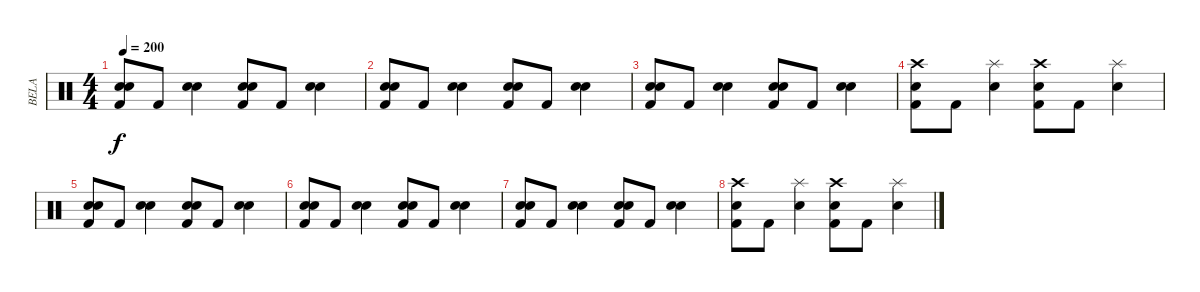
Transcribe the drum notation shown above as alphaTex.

\track ("BELA" "BELA") {instrument percussion}
\staff {score}
\articulation defaults
\ts (4 4)
\tempo 200
\clef neutral
\ks c
("Electric Snare (hit)" "Snare (hit) 2" "Kick (hit) 2").8{dy f} "Kick (hit) 2".8 ("Electric Snare (hit)" "Snare (hit) 2").4 ("Electric Snare (hit)" "Snare (hit) 2" "Kick (hit) 2").8 "Kick (hit) 2".8 ("Electric Snare (hit)" "Snare (hit) 2").4 |
("Electric Snare (hit)" "Snare (hit) 2" "Kick (hit) 2").8 "Kick (hit) 2".8 ("Electric Snare (hit)" "Snare (hit) 2").4 ("Electric Snare (hit)" "Snare (hit) 2" "Kick (hit) 2").8 "Kick (hit) 2".8 ("Electric Snare (hit)" "Snare (hit) 2").4 |
("Electric Snare (hit)" "Snare (hit) 2" "Kick (hit) 2").8 "Kick (hit) 2".8 ("Electric Snare (hit)" "Snare (hit) 2").4 ("Electric Snare (hit)" "Snare (hit) 2" "Kick (hit) 2").8 "Kick (hit) 2".8 ("Electric Snare (hit)" "Snare (hit) 2").4 |
("Crash high (hit)" "Electric Snare (hit)" "Kick (hit) 2").8 "Kick (hit) 2".8 ("Splash (hit)" "Electric Snare (hit)").4 ("Crash high (hit)" "Electric Snare (hit)" "Kick (hit) 2").8 "Kick (hit) 2".8 ("Splash (hit)" "Electric Snare (hit)").4 |
("Electric Snare (hit)" "Snare (hit) 2" "Kick (hit) 2").8 "Kick (hit) 2".8 ("Electric Snare (hit)" "Snare (hit) 2").4 ("Electric Snare (hit)" "Snare (hit) 2" "Kick (hit) 2").8 "Kick (hit) 2".8 ("Electric Snare (hit)" "Snare (hit) 2").4 |
("Electric Snare (hit)" "Snare (hit) 2" "Kick (hit) 2").8 "Kick (hit) 2".8 ("Electric Snare (hit)" "Snare (hit) 2").4 ("Electric Snare (hit)" "Snare (hit) 2" "Kick (hit) 2").8 "Kick (hit) 2".8 ("Electric Snare (hit)" "Snare (hit) 2").4 |
("Electric Snare (hit)" "Snare (hit) 2" "Kick (hit) 2").8 "Kick (hit) 2".8 ("Electric Snare (hit)" "Snare (hit) 2").4 ("Electric Snare (hit)" "Snare (hit) 2" "Kick (hit) 2").8 "Kick (hit) 2".8 ("Electric Snare (hit)" "Snare (hit) 2").4 |
("Crash high (hit)" "Electric Snare (hit)" "Kick (hit) 2").8 "Kick (hit) 2".8 ("Splash (hit)" "Electric Snare (hit)").4 ("Crash high (hit)" "Electric Snare (hit)" "Kick (hit) 2").8 "Kick (hit) 2".8 ("Splash (hit)" "Electric Snare (hit)").4
